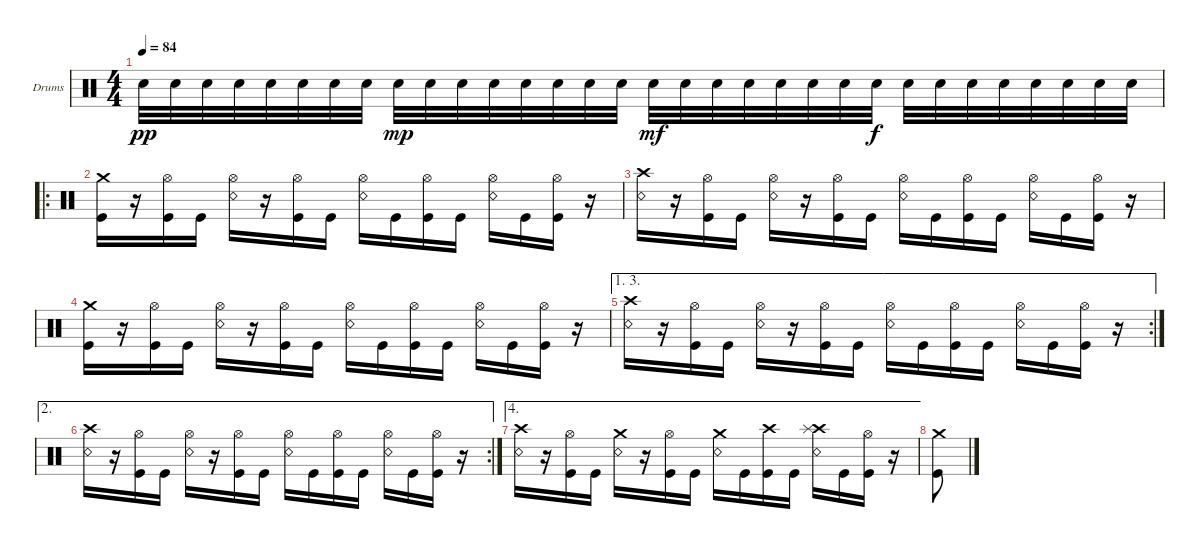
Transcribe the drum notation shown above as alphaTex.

\defaultSystemsLayout 4
\bracketExtendMode groupsimilarinstruments
\firstSystemTrackNameOrientation horizontal
\otherSystemsTrackNameOrientation horizontal
\track ("Drumkit" "Drums") {instrument percussion}
\staff {score}
\articulation defaults
\ts (4 4)
\tempo 84
\clef neutral
\scale
0.311475
\ks c "Snare (hit) 2".32{dy pp} "Snare (hit) 2".32 "Snare (hit) 2".32 "Snare (hit) 2".32 "Snare (hit) 2".32 "Snare (hit) 2".32 "Snare (hit) 2".32 "Snare (hit) 2".32 "Snare (hit) 2".32{dy mp} "Snare (hit) 2".32 "Snare (hit) 2".32 "Snare (hit) 2".32 "Snare (hit) 2".32 "Snare (hit) 2".32 "Snare (hit) 2".32 "Snare (hit) 2".32 "Snare (hit) 2".32{dy mf} "Snare (hit) 2".32 "Snare (hit) 2".32 "Snare (hit) 2".32 "Snare (hit) 2".32 "Snare (hit) 2".32 "Snare (hit) 2".32 "Snare (hit) 2".32{dy f} "Snare (hit) 2".32 "Snare (hit) 2".32 "Snare (hit) 2".32 "Snare (hit) 2".32 "Snare (hit) 2".32 "Snare (hit) 2".32 "Snare (hit) 2".32 "Snare (hit) 2".32
|
\ro
\scale
0.377049 ("Kick (hit)" "Crash medium (hit)").16 r.16 ("Kick (hit)" "Hi-Hat (open)").16 "Kick (hit)".16 ("Snare (rim shot)" "Hi-Hat (open)").16 r.16 ("Kick (hit)" "Hi-Hat (open)").16 "Kick (hit)".16 ("Snare (rim shot)" "Hi-Hat (open)").16 "Kick (hit)".16 ("Kick (hit)" "Hi-Hat (open)").16 "Kick (hit)".16 ("Snare (rim shot)" "Hi-Hat (open)").16 "Kick (hit)".16 ("Kick (hit)" "Hi-Hat (open)").16 r.16 |
\scale
0.311475 ("Crash high (hit)" "Snare (rim shot)").16 r.16 ("Kick (hit)" "Hi-Hat (open)").16 "Kick (hit)".16 ("Snare (rim shot)" "Hi-Hat (open)").16 r.16 ("Kick (hit)" "Hi-Hat (open)").16 "Kick (hit)".16 ("Snare (rim shot)" "Hi-Hat (open)").16 "Kick (hit)".16 ("Kick (hit)" "Hi-Hat (open)").16 "Kick (hit)".16 ("Snare (rim shot)" "Hi-Hat (open)").16 "Kick (hit)".16 ("Kick (hit)" "Hi-Hat (open)").16 r.16 |
\scale
0.322034 ("Kick (hit)" "Crash medium (hit)").16 r.16 ("Kick (hit)" "Hi-Hat (open)").16 "Kick (hit)".16 ("Snare (rim shot)" "Hi-Hat (open)").16 r.16 ("Kick (hit)" "Hi-Hat (open)").16 "Kick (hit)".16 ("Snare (rim shot)" "Hi-Hat (open)").16 "Kick (hit)".16 ("Kick (hit)" "Hi-Hat (open)").16 "Kick (hit)".16 ("Snare (rim shot)" "Hi-Hat (open)").16 "Kick (hit)".16 ("Kick (hit)" "Hi-Hat (open)").16 r.16 |
\ae (1 3)
\rc 2
\scale
0.355932 ("Crash high (hit)" "Snare (rim shot)").16 r.16 ("Kick (hit)" "Hi-Hat (open)").16 "Kick (hit)".16 ("Snare (rim shot)" "Hi-Hat (open)").16 r.16 ("Kick (hit)" "Hi-Hat (open)").16 "Kick (hit)".16 ("Snare (rim shot)" "Hi-Hat (open)").16 "Kick (hit)".16 ("Kick (hit)" "Hi-Hat (open)").16 "Kick (hit)".16 ("Snare (rim shot)" "Hi-Hat (open)").16 "Kick (hit)".16 ("Kick (hit)" "Hi-Hat (open)").16 r.16 |
\ae 2
\rc 2
\scale
0.322034 ("Crash high (hit)" "Snare (rim shot)").16 r.16 ("Kick (hit)" "Hi-Hat (open)").16 "Kick (hit)".16 ("Snare (rim shot)" "Hi-Hat (open)").16 r.16 ("Kick (hit)" "Hi-Hat (open)").16 "Kick (hit)".16 ("Snare (rim shot)" "Hi-Hat (open)").16 "Kick (hit)".16 ("Kick (hit)" "Hi-Hat (open)").16 "Kick (hit)".16 ("Snare (rim shot)" "Hi-Hat (open)").16 "Kick (hit)".16 ("Kick (hit)" "Hi-Hat (open)").16 r.16 |
\ae 4
("Crash high (hit)" "Snare (rim shot)").16 r.16 ("Kick (hit)" "Hi-Hat (open)").16 "Kick (hit)".16 ("Snare (rim shot)" "Crash medium (hit)").16 r.16 ("Kick (hit)" "Hi-Hat (open)").16 "Kick (hit)".16 ("Snare (rim shot)" "Crash medium (hit)").16 "Kick (hit)".16 ("Kick (hit)" "Crash high (hit)").16 "Kick (hit)".16 ("Snare (rim shot)" "Crash high (hit)" "Splash (hit)").16 "Kick (hit)".16 ("Kick (hit)" "Hi-Hat (open)").16 r.16 |
("Kick (hit)" "Crash medium (hit)").8
